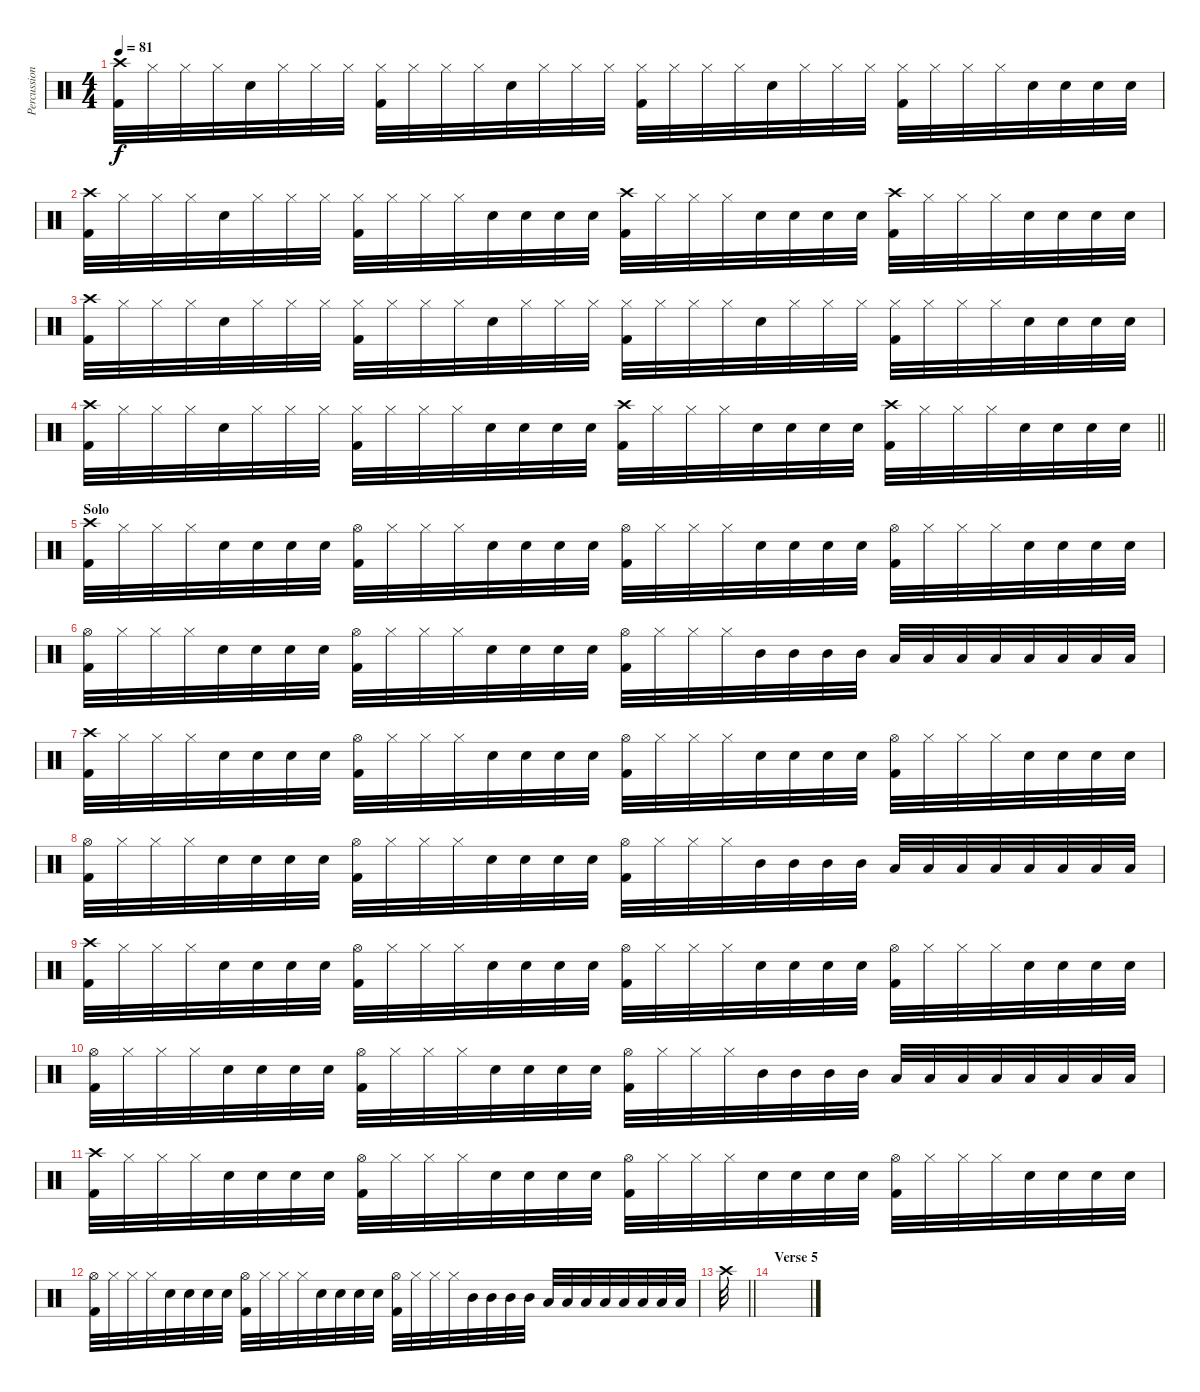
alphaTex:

\track ("Percussion" "Percussion") {instrument percussion}
\staff {score}
\articulation defaults
\ts (4 4)
\tempo 81
\clef neutral
\ks c
("Crash high (hit)" "Kick (hit) 2").32{dy f} "Hi-Hat (closed)".32 "Hi-Hat (closed)".32 "Hi-Hat (closed)".32 "Snare (hit) 2".32 "Hi-Hat (closed)".32 "Hi-Hat (closed)".32 "Hi-Hat (closed)".32 ("Hi-Hat (closed)" "Kick (hit) 2").32 "Hi-Hat (closed)".32 "Hi-Hat (closed)".32 "Hi-Hat (closed)".32 "Snare (hit) 2".32 "Hi-Hat (closed)".32 "Hi-Hat (closed)".32 "Hi-Hat (closed)".32 ("Hi-Hat (closed)" "Kick (hit) 2").32 "Hi-Hat (closed)".32 "Hi-Hat (closed)".32 "Hi-Hat (closed)".32 "Snare (hit) 2".32 "Hi-Hat (closed)".32 "Hi-Hat (closed)".32 "Hi-Hat (closed)".32 ("Hi-Hat (closed)" "Kick (hit) 2").32 "Hi-Hat (closed)".32 "Hi-Hat (closed)".32 "Hi-Hat (closed)".32 "Snare (hit) 2".32 "Snare (hit) 2".32 "Snare (hit) 2".32 "Snare (hit) 2".32 |
("Crash high (hit)" "Kick (hit) 2").32 "Hi-Hat (closed)".32 "Hi-Hat (closed)".32 "Hi-Hat (closed)".32 "Snare (hit) 2".32 "Hi-Hat (closed)".32 "Hi-Hat (closed)".32 "Hi-Hat (closed)".32 ("Hi-Hat (closed)" "Kick (hit) 2").32 "Hi-Hat (closed)".32 "Hi-Hat (closed)".32 "Hi-Hat (closed)".32 "Snare (hit) 2".32 "Snare (hit) 2".32 "Snare (hit) 2".32 "Snare (hit) 2".32 ("Crash high (hit)" "Kick (hit) 2").32 "Hi-Hat (closed)".32 "Hi-Hat (closed)".32 "Hi-Hat (closed)".32 "Snare (hit) 2".32 "Snare (hit) 2".32 "Snare (hit) 2".32 "Snare (hit) 2".32 ("Crash high (hit)" "Kick (hit) 2").32 "Hi-Hat (closed)".32 "Hi-Hat (closed)".32 "Hi-Hat (closed)".32 "Snare (hit) 2".32 "Snare (hit) 2".32 "Snare (hit) 2".32 "Snare (hit) 2".32 |
("Crash high (hit)" "Kick (hit) 2").32 "Hi-Hat (closed)".32 "Hi-Hat (closed)".32 "Hi-Hat (closed)".32 "Snare (hit) 2".32 "Hi-Hat (closed)".32 "Hi-Hat (closed)".32 "Hi-Hat (closed)".32 ("Hi-Hat (closed)" "Kick (hit) 2").32 "Hi-Hat (closed)".32 "Hi-Hat (closed)".32 "Hi-Hat (closed)".32 "Snare (hit) 2".32 "Hi-Hat (closed)".32 "Hi-Hat (closed)".32 "Hi-Hat (closed)".32 ("Hi-Hat (closed)" "Kick (hit) 2").32 "Hi-Hat (closed)".32 "Hi-Hat (closed)".32 "Hi-Hat (closed)".32 "Snare (hit) 2".32 "Hi-Hat (closed)".32 "Hi-Hat (closed)".32 "Hi-Hat (closed)".32 ("Hi-Hat (closed)" "Kick (hit) 2").32 "Hi-Hat (closed)".32 "Hi-Hat (closed)".32 "Hi-Hat (closed)".32 "Snare (hit) 2".32 "Snare (hit) 2".32 "Snare (hit) 2".32 "Snare (hit) 2".32 |
\barLineRight lightlight
("Crash high (hit)" "Kick (hit) 2").32 "Hi-Hat (closed)".32 "Hi-Hat (closed)".32 "Hi-Hat (closed)".32 "Snare (hit) 2".32 "Hi-Hat (closed)".32 "Hi-Hat (closed)".32 "Hi-Hat (closed)".32 ("Hi-Hat (closed)" "Kick (hit) 2").32 "Hi-Hat (closed)".32 "Hi-Hat (closed)".32 "Hi-Hat (closed)".32 "Snare (hit) 2".32 "Snare (hit) 2".32 "Snare (hit) 2".32 "Snare (hit) 2".32 ("Crash high (hit)" "Kick (hit) 2").32 "Hi-Hat (closed)".32 "Hi-Hat (closed)".32 "Hi-Hat (closed)".32 "Snare (hit) 2".32 "Snare (hit) 2".32 "Snare (hit) 2".32 "Snare (hit) 2".32 ("Crash high (hit)" "Kick (hit) 2").32 "Hi-Hat (closed)".32 "Hi-Hat (closed)".32 "Hi-Hat (closed)".32 "Snare (hit) 2".32 "Snare (hit) 2".32 "Snare (hit) 2".32 "Snare (hit) 2".32 |
\section ("" "Solo")
("Crash high (hit)" "Kick (hit) 2").32 "Hi-Hat (closed)".32 "Hi-Hat (closed)".32 "Hi-Hat (closed)".32 "Snare (hit) 2".32 "Snare (hit) 2".32 "Snare (hit) 2".32 "Snare (hit) 2".32 ("Hi-Hat (open)" "Kick (hit) 2").32 "Hi-Hat (closed)".32 "Hi-Hat (closed)".32 "Hi-Hat (closed)".32 "Snare (hit) 2".32 "Snare (hit) 2".32 "Snare (hit) 2".32 "Snare (hit) 2".32 ("Hi-Hat (open)" "Kick (hit) 2").32 "Hi-Hat (closed)".32 "Hi-Hat (closed)".32 "Hi-Hat (closed)".32 "Snare (hit) 2".32 "Snare (hit) 2".32 "Snare (hit) 2".32 "Snare (hit) 2".32 ("Hi-Hat (open)" "Kick (hit) 2").32 "Hi-Hat (closed)".32 "Hi-Hat (closed)".32 "Hi-Hat (closed)".32 "Snare (hit) 2".32 "Snare (hit) 2".32 "Snare (hit) 2".32 "Snare (hit) 2".32 |
("Hi-Hat (open)" "Kick (hit) 2").32 "Hi-Hat (closed)".32 "Hi-Hat (closed)".32 "Hi-Hat (closed)".32 "Snare (hit) 2".32 "Snare (hit) 2".32 "Snare (hit) 2".32 "Snare (hit) 2".32 ("Hi-Hat (open)" "Kick (hit) 2").32 "Hi-Hat (closed)".32 "Hi-Hat (closed)".32 "Hi-Hat (closed)".32 "Snare (hit) 2".32 "Snare (hit) 2".32 "Snare (hit) 2".32 "Snare (hit) 2".32 ("Hi-Hat (open)" "Kick (hit) 2").32 "Hi-Hat (closed)".32 "Hi-Hat (closed)".32 "Hi-Hat (closed)".32 "Mid Tom (hit)".32 "Mid Tom (hit)".32 "Mid Tom (hit)".32 "Mid Tom (hit)".32 "Low Tom (hit)".32 "Low Tom (hit)".32 "Low Tom (hit)".32 "Low Tom (hit)".32 "Low Floor Tom (hit)".32 "Low Floor Tom (hit)".32 "Low Floor Tom (hit)".32 "Low Floor Tom (hit)".32 |
("Crash high (hit)" "Kick (hit) 2").32 "Hi-Hat (closed)".32 "Hi-Hat (closed)".32 "Hi-Hat (closed)".32 "Snare (hit) 2".32 "Snare (hit) 2".32 "Snare (hit) 2".32 "Snare (hit) 2".32 ("Hi-Hat (open)" "Kick (hit) 2").32 "Hi-Hat (closed)".32 "Hi-Hat (closed)".32 "Hi-Hat (closed)".32 "Snare (hit) 2".32 "Snare (hit) 2".32 "Snare (hit) 2".32 "Snare (hit) 2".32 ("Hi-Hat (open)" "Kick (hit) 2").32 "Hi-Hat (closed)".32 "Hi-Hat (closed)".32 "Hi-Hat (closed)".32 "Snare (hit) 2".32 "Snare (hit) 2".32 "Snare (hit) 2".32 "Snare (hit) 2".32 ("Hi-Hat (open)" "Kick (hit) 2").32 "Hi-Hat (closed)".32 "Hi-Hat (closed)".32 "Hi-Hat (closed)".32 "Snare (hit) 2".32 "Snare (hit) 2".32 "Snare (hit) 2".32 "Snare (hit) 2".32 |
("Hi-Hat (open)" "Kick (hit) 2").32 "Hi-Hat (closed)".32 "Hi-Hat (closed)".32 "Hi-Hat (closed)".32 "Snare (hit) 2".32 "Snare (hit) 2".32 "Snare (hit) 2".32 "Snare (hit) 2".32 ("Hi-Hat (open)" "Kick (hit) 2").32 "Hi-Hat (closed)".32 "Hi-Hat (closed)".32 "Hi-Hat (closed)".32 "Snare (hit) 2".32 "Snare (hit) 2".32 "Snare (hit) 2".32 "Snare (hit) 2".32 ("Hi-Hat (open)" "Kick (hit) 2").32 "Hi-Hat (closed)".32 "Hi-Hat (closed)".32 "Hi-Hat (closed)".32 "Mid Tom (hit)".32 "Mid Tom (hit)".32 "Mid Tom (hit)".32 "Mid Tom (hit)".32 "Low Tom (hit)".32 "Low Tom (hit)".32 "Low Tom (hit)".32 "Low Tom (hit)".32 "Low Floor Tom (hit)".32 "Low Floor Tom (hit)".32 "Low Floor Tom (hit)".32 "Low Floor Tom (hit)".32 |
("Crash high (hit)" "Kick (hit) 2").32 "Hi-Hat (closed)".32 "Hi-Hat (closed)".32 "Hi-Hat (closed)".32 "Snare (hit) 2".32 "Snare (hit) 2".32 "Snare (hit) 2".32 "Snare (hit) 2".32 ("Hi-Hat (open)" "Kick (hit) 2").32 "Hi-Hat (closed)".32 "Hi-Hat (closed)".32 "Hi-Hat (closed)".32 "Snare (hit) 2".32 "Snare (hit) 2".32 "Snare (hit) 2".32 "Snare (hit) 2".32 ("Hi-Hat (open)" "Kick (hit) 2").32 "Hi-Hat (closed)".32 "Hi-Hat (closed)".32 "Hi-Hat (closed)".32 "Snare (hit) 2".32 "Snare (hit) 2".32 "Snare (hit) 2".32 "Snare (hit) 2".32 ("Hi-Hat (open)" "Kick (hit) 2").32 "Hi-Hat (closed)".32 "Hi-Hat (closed)".32 "Hi-Hat (closed)".32 "Snare (hit) 2".32 "Snare (hit) 2".32 "Snare (hit) 2".32 "Snare (hit) 2".32 |
("Hi-Hat (open)" "Kick (hit) 2").32 "Hi-Hat (closed)".32 "Hi-Hat (closed)".32 "Hi-Hat (closed)".32 "Snare (hit) 2".32 "Snare (hit) 2".32 "Snare (hit) 2".32 "Snare (hit) 2".32 ("Hi-Hat (open)" "Kick (hit) 2").32 "Hi-Hat (closed)".32 "Hi-Hat (closed)".32 "Hi-Hat (closed)".32 "Snare (hit) 2".32 "Snare (hit) 2".32 "Snare (hit) 2".32 "Snare (hit) 2".32 ("Hi-Hat (open)" "Kick (hit) 2").32 "Hi-Hat (closed)".32 "Hi-Hat (closed)".32 "Hi-Hat (closed)".32 "Mid Tom (hit)".32 "Mid Tom (hit)".32 "Mid Tom (hit)".32 "Mid Tom (hit)".32 "Low Tom (hit)".32 "Low Tom (hit)".32 "Low Tom (hit)".32 "Low Tom (hit)".32 "Low Floor Tom (hit)".32 "Low Floor Tom (hit)".32 "Low Floor Tom (hit)".32 "Low Floor Tom (hit)".32 |
("Crash high (hit)" "Kick (hit) 2").32 "Hi-Hat (closed)".32 "Hi-Hat (closed)".32 "Hi-Hat (closed)".32 "Snare (hit) 2".32 "Snare (hit) 2".32 "Snare (hit) 2".32 "Snare (hit) 2".32 ("Hi-Hat (open)" "Kick (hit) 2").32 "Hi-Hat (closed)".32 "Hi-Hat (closed)".32 "Hi-Hat (closed)".32 "Snare (hit) 2".32 "Snare (hit) 2".32 "Snare (hit) 2".32 "Snare (hit) 2".32 ("Hi-Hat (open)" "Kick (hit) 2").32 "Hi-Hat (closed)".32 "Hi-Hat (closed)".32 "Hi-Hat (closed)".32 "Snare (hit) 2".32 "Snare (hit) 2".32 "Snare (hit) 2".32 "Snare (hit) 2".32 ("Hi-Hat (open)" "Kick (hit) 2").32 "Hi-Hat (closed)".32 "Hi-Hat (closed)".32 "Hi-Hat (closed)".32 "Snare (hit) 2".32 "Snare (hit) 2".32 "Snare (hit) 2".32 "Snare (hit) 2".32 |
("Hi-Hat (open)" "Kick (hit) 2").32 "Hi-Hat (closed)".32 "Hi-Hat (closed)".32 "Hi-Hat (closed)".32 "Snare (hit) 2".32 "Snare (hit) 2".32 "Snare (hit) 2".32 "Snare (hit) 2".32 ("Hi-Hat (open)" "Kick (hit) 2").32 "Hi-Hat (closed)".32 "Hi-Hat (closed)".32 "Hi-Hat (closed)".32 "Snare (hit) 2".32 "Snare (hit) 2".32 "Snare (hit) 2".32 "Snare (hit) 2".32 ("Hi-Hat (open)" "Kick (hit) 2").32 "Hi-Hat (closed)".32 "Hi-Hat (closed)".32 "Hi-Hat (closed)".32 "Mid Tom (hit)".32 "Mid Tom (hit)".32 "Mid Tom (hit)".32 "Mid Tom (hit)".32 "Low Tom (hit)".32 "Low Tom (hit)".32 "Low Tom (hit)".32 "Low Tom (hit)".32 "Low Floor Tom (hit)".32 "Low Floor Tom (hit)".32 "Low Floor Tom (hit)".32 "Low Floor Tom (hit)".32 |
\barLineRight lightlight "Crash high (hit)".32
|
\section ("" "Verse 5")
